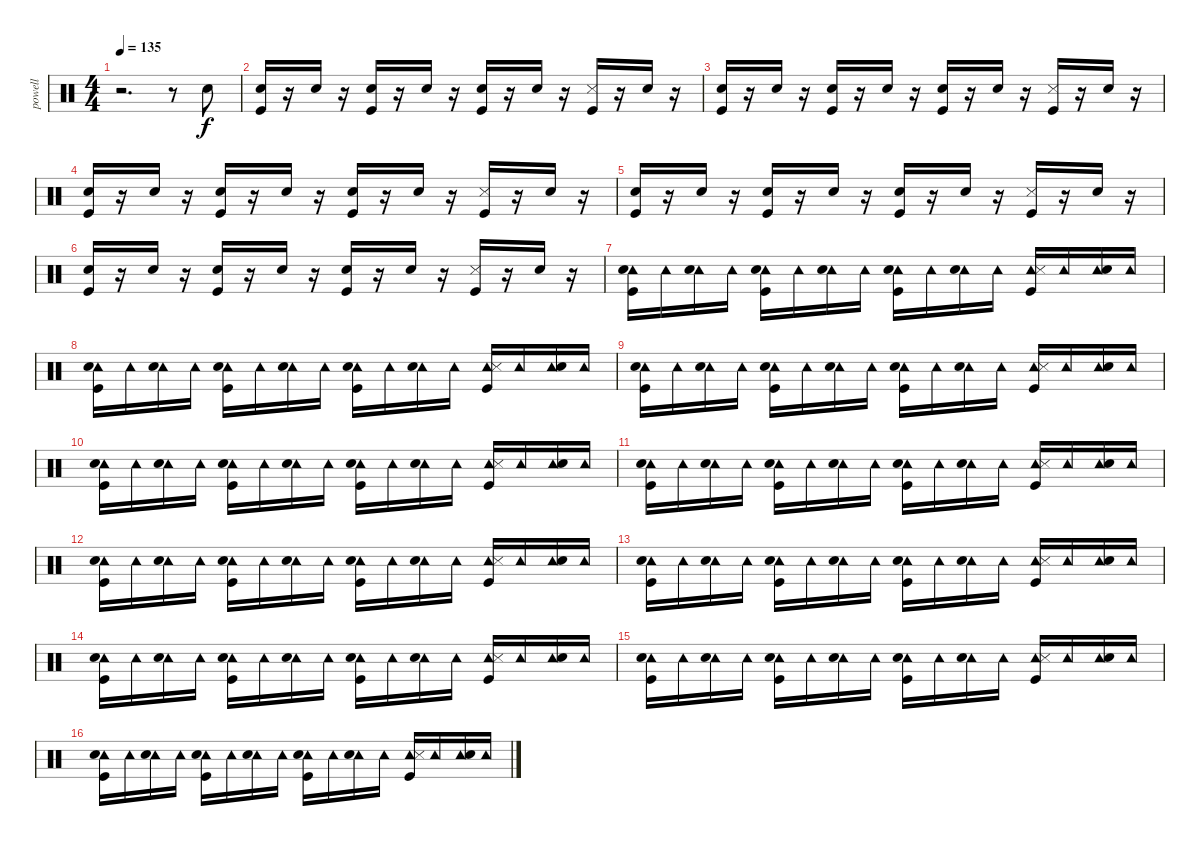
\track ("powell" "powell") {instrument percussion}
\staff {score}
\articulation defaults
\ts (4 4)
\tempo 135
\clef neutral
\ks c
r.2{d dy f} r.8 "Electric Snare (hit)".8 |
("Electric Snare (hit)" "Kick (hit)").16 r.16 "Electric Snare (hit)".16 r.16 ("Electric Snare (hit)" "Kick (hit)").16 r.16 "Electric Snare (hit)".16 r.16 ("Electric Snare (hit)" "Kick (hit)").16 r.16 "Electric Snare (hit)".16 r.16 ("Snare (side stick) 3" "Kick (hit)").16 r.16 "Electric Snare (hit)".16 r.16 |
("Electric Snare (hit)" "Kick (hit)").16 r.16 "Electric Snare (hit)".16 r.16 ("Electric Snare (hit)" "Kick (hit)").16 r.16 "Electric Snare (hit)".16 r.16 ("Electric Snare (hit)" "Kick (hit)").16 r.16 "Electric Snare (hit)".16 r.16 ("Snare (side stick) 3" "Kick (hit)").16 r.16 "Electric Snare (hit)".16 r.16 |
("Electric Snare (hit)" "Kick (hit)").16 r.16 "Electric Snare (hit)".16 r.16 ("Electric Snare (hit)" "Kick (hit)").16 r.16 "Electric Snare (hit)".16 r.16 ("Electric Snare (hit)" "Kick (hit)").16 r.16 "Electric Snare (hit)".16 r.16 ("Snare (side stick) 3" "Kick (hit)").16 r.16 "Electric Snare (hit)".16 r.16 |
("Electric Snare (hit)" "Kick (hit)").16 r.16 "Electric Snare (hit)".16 r.16 ("Electric Snare (hit)" "Kick (hit)").16 r.16 "Electric Snare (hit)".16 r.16 ("Electric Snare (hit)" "Kick (hit)").16 r.16 "Electric Snare (hit)".16 r.16 ("Snare (side stick) 3" "Kick (hit)").16 r.16 "Electric Snare (hit)".16 r.16 |
("Electric Snare (hit)" "Kick (hit)").16 r.16 "Electric Snare (hit)".16 r.16 ("Electric Snare (hit)" "Kick (hit)").16 r.16 "Electric Snare (hit)".16 r.16 ("Electric Snare (hit)" "Kick (hit)").16 r.16 "Electric Snare (hit)".16 r.16 ("Snare (side stick) 3" "Kick (hit)").16 r.16 "Electric Snare (hit)".16 r.16 |
("Tambourine (hit)" "Electric Snare (hit)" "Kick (hit)").16 "Tambourine (hit)".16 ("Tambourine (hit)" "Electric Snare (hit)").16 "Tambourine (hit)".16 ("Tambourine (hit)" "Electric Snare (hit)" "Kick (hit)").16 "Tambourine (hit)".16 ("Tambourine (hit)" "Electric Snare (hit)").16 "Tambourine (hit)".16 ("Tambourine (hit)" "Electric Snare (hit)" "Kick (hit)").16 "Tambourine (hit)".16 ("Tambourine (hit)" "Electric Snare (hit)").16 "Tambourine (hit)".16 ("Tambourine (hit)" "Snare (side stick) 3" "Kick (hit)").16 "Tambourine (hit)".16 ("Tambourine (hit)" "Electric Snare (hit)").16 "Tambourine (hit)".16 |
("Tambourine (hit)" "Electric Snare (hit)" "Kick (hit)").16 "Tambourine (hit)".16 ("Tambourine (hit)" "Electric Snare (hit)").16 "Tambourine (hit)".16 ("Tambourine (hit)" "Electric Snare (hit)" "Kick (hit)").16 "Tambourine (hit)".16 ("Tambourine (hit)" "Electric Snare (hit)").16 "Tambourine (hit)".16 ("Tambourine (hit)" "Electric Snare (hit)" "Kick (hit)").16 "Tambourine (hit)".16 ("Tambourine (hit)" "Electric Snare (hit)").16 "Tambourine (hit)".16 ("Tambourine (hit)" "Snare (side stick) 3" "Kick (hit)").16 "Tambourine (hit)".16 ("Tambourine (hit)" "Electric Snare (hit)").16 "Tambourine (hit)".16 |
("Tambourine (hit)" "Electric Snare (hit)" "Kick (hit)").16 "Tambourine (hit)".16 ("Tambourine (hit)" "Electric Snare (hit)").16 "Tambourine (hit)".16 ("Tambourine (hit)" "Electric Snare (hit)" "Kick (hit)").16 "Tambourine (hit)".16 ("Tambourine (hit)" "Electric Snare (hit)").16 "Tambourine (hit)".16 ("Tambourine (hit)" "Electric Snare (hit)" "Kick (hit)").16 "Tambourine (hit)".16 ("Tambourine (hit)" "Electric Snare (hit)").16 "Tambourine (hit)".16 ("Tambourine (hit)" "Snare (side stick) 3" "Kick (hit)").16 "Tambourine (hit)".16 ("Tambourine (hit)" "Electric Snare (hit)").16 "Tambourine (hit)".16 |
("Tambourine (hit)" "Electric Snare (hit)" "Kick (hit)").16 "Tambourine (hit)".16 ("Tambourine (hit)" "Electric Snare (hit)").16 "Tambourine (hit)".16 ("Tambourine (hit)" "Electric Snare (hit)" "Kick (hit)").16 "Tambourine (hit)".16 ("Tambourine (hit)" "Electric Snare (hit)").16 "Tambourine (hit)".16 ("Tambourine (hit)" "Electric Snare (hit)" "Kick (hit)").16 "Tambourine (hit)".16 ("Tambourine (hit)" "Electric Snare (hit)").16 "Tambourine (hit)".16 ("Tambourine (hit)" "Snare (side stick) 3" "Kick (hit)").16 "Tambourine (hit)".16 ("Tambourine (hit)" "Electric Snare (hit)").16 "Tambourine (hit)".16 |
("Tambourine (hit)" "Electric Snare (hit)" "Kick (hit)").16 "Tambourine (hit)".16 ("Tambourine (hit)" "Electric Snare (hit)").16 "Tambourine (hit)".16 ("Tambourine (hit)" "Electric Snare (hit)" "Kick (hit)").16 "Tambourine (hit)".16 ("Tambourine (hit)" "Electric Snare (hit)").16 "Tambourine (hit)".16 ("Tambourine (hit)" "Electric Snare (hit)" "Kick (hit)").16 "Tambourine (hit)".16 ("Tambourine (hit)" "Electric Snare (hit)").16 "Tambourine (hit)".16 ("Tambourine (hit)" "Snare (side stick) 3" "Kick (hit)").16 "Tambourine (hit)".16 ("Tambourine (hit)" "Electric Snare (hit)").16 "Tambourine (hit)".16 |
("Tambourine (hit)" "Electric Snare (hit)" "Kick (hit)").16 "Tambourine (hit)".16 ("Tambourine (hit)" "Electric Snare (hit)").16 "Tambourine (hit)".16 ("Tambourine (hit)" "Electric Snare (hit)" "Kick (hit)").16 "Tambourine (hit)".16 ("Tambourine (hit)" "Electric Snare (hit)").16 "Tambourine (hit)".16 ("Tambourine (hit)" "Electric Snare (hit)" "Kick (hit)").16 "Tambourine (hit)".16 ("Tambourine (hit)" "Electric Snare (hit)").16 "Tambourine (hit)".16 ("Tambourine (hit)" "Snare (side stick) 3" "Kick (hit)").16 "Tambourine (hit)".16 ("Tambourine (hit)" "Electric Snare (hit)").16 "Tambourine (hit)".16 |
("Tambourine (hit)" "Electric Snare (hit)" "Kick (hit)").16 "Tambourine (hit)".16 ("Tambourine (hit)" "Electric Snare (hit)").16 "Tambourine (hit)".16 ("Tambourine (hit)" "Electric Snare (hit)" "Kick (hit)").16 "Tambourine (hit)".16 ("Tambourine (hit)" "Electric Snare (hit)").16 "Tambourine (hit)".16 ("Tambourine (hit)" "Electric Snare (hit)" "Kick (hit)").16 "Tambourine (hit)".16 ("Tambourine (hit)" "Electric Snare (hit)").16 "Tambourine (hit)".16 ("Tambourine (hit)" "Snare (side stick) 3" "Kick (hit)").16 "Tambourine (hit)".16 ("Tambourine (hit)" "Electric Snare (hit)").16 "Tambourine (hit)".16 |
("Tambourine (hit)" "Electric Snare (hit)" "Kick (hit)").16 "Tambourine (hit)".16 ("Tambourine (hit)" "Electric Snare (hit)").16 "Tambourine (hit)".16 ("Tambourine (hit)" "Electric Snare (hit)" "Kick (hit)").16 "Tambourine (hit)".16 ("Tambourine (hit)" "Electric Snare (hit)").16 "Tambourine (hit)".16 ("Tambourine (hit)" "Electric Snare (hit)" "Kick (hit)").16 "Tambourine (hit)".16 ("Tambourine (hit)" "Electric Snare (hit)").16 "Tambourine (hit)".16 ("Tambourine (hit)" "Snare (side stick) 3" "Kick (hit)").16 "Tambourine (hit)".16 ("Tambourine (hit)" "Electric Snare (hit)").16 "Tambourine (hit)".16 |
("Tambourine (hit)" "Electric Snare (hit)" "Kick (hit)").16 "Tambourine (hit)".16 ("Tambourine (hit)" "Electric Snare (hit)").16 "Tambourine (hit)".16 ("Tambourine (hit)" "Electric Snare (hit)" "Kick (hit)").16 "Tambourine (hit)".16 ("Tambourine (hit)" "Electric Snare (hit)").16 "Tambourine (hit)".16 ("Tambourine (hit)" "Electric Snare (hit)" "Kick (hit)").16 "Tambourine (hit)".16 ("Tambourine (hit)" "Electric Snare (hit)").16 "Tambourine (hit)".16 ("Tambourine (hit)" "Snare (side stick) 3" "Kick (hit)").16 "Tambourine (hit)".16 ("Tambourine (hit)" "Electric Snare (hit)").16 "Tambourine (hit)".16 |
("Tambourine (hit)" "Electric Snare (hit)" "Kick (hit)").16 "Tambourine (hit)".16 ("Tambourine (hit)" "Electric Snare (hit)").16 "Tambourine (hit)".16 ("Tambourine (hit)" "Electric Snare (hit)" "Kick (hit)").16 "Tambourine (hit)".16 ("Tambourine (hit)" "Electric Snare (hit)").16 "Tambourine (hit)".16 ("Tambourine (hit)" "Electric Snare (hit)" "Kick (hit)").16 "Tambourine (hit)".16 ("Tambourine (hit)" "Electric Snare (hit)").16 "Tambourine (hit)".16 ("Tambourine (hit)" "Snare (side stick) 3" "Kick (hit)").16 "Tambourine (hit)".16 ("Tambourine (hit)" "Electric Snare (hit)").16 "Tambourine (hit)".16
